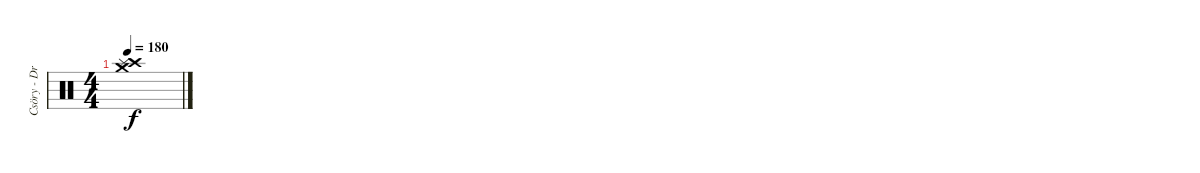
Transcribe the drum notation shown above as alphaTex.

\track ("Csöry - DrumZ" "Csöry - Dr") {instrument percussion}
\staff {score}
\articulation defaults
\ts (4 4)
\tempo 180
\clef neutral
\ks c
("Crash high (hit)" "Crash medium (hit)" "Splash (hit)").1{dy f}
